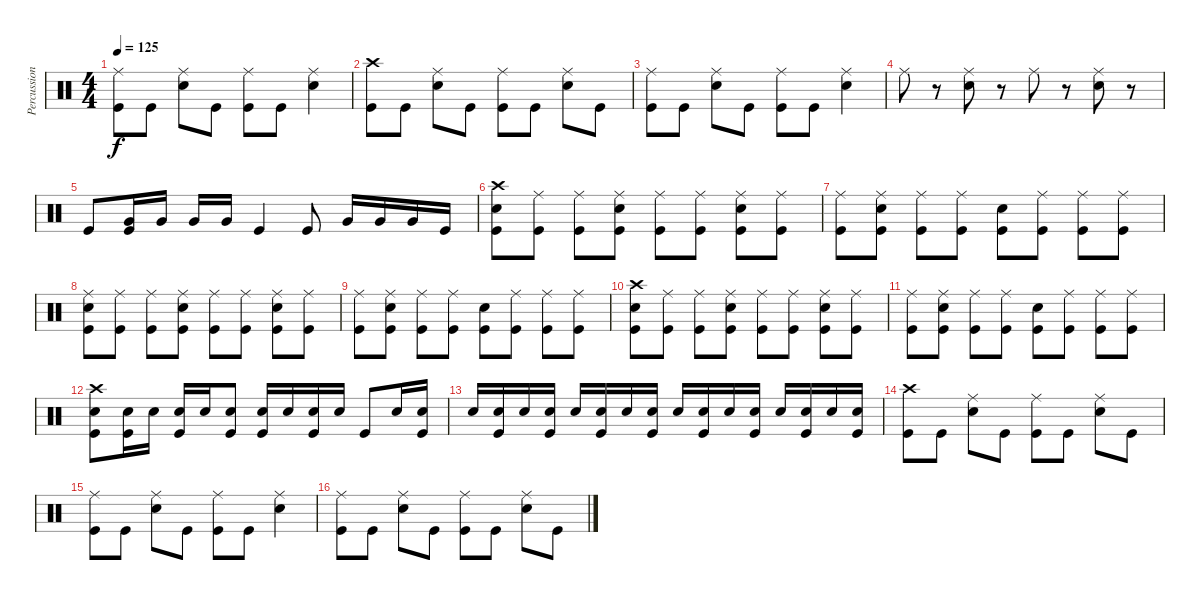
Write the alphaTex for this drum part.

\track ("Percussion" "Percussion") {instrument percussion}
\staff {score}
\articulation defaults
\ts (4 4)
\tempo 125
\clef neutral
\ks c
("Ride (middle)" "Kick (hit)").8{dy f} "Kick (hit)".8 ("Ride (middle)" "Snare (hit) 2").8 "Kick (hit)".8 ("Ride (middle)" "Kick (hit)").8 "Kick (hit)".8 ("Ride (middle)" "Snare (hit) 2").4 |
("Crash high (hit)" "Kick (hit)").8 "Kick (hit)".8 ("Ride (middle)" "Snare (hit) 2").8 "Kick (hit)".8 ("Ride (middle)" "Kick (hit)").8 "Kick (hit)".8 ("Ride (middle)" "Snare (hit) 2").8 "Kick (hit)".8 |
("Ride (middle)" "Kick (hit)").8 "Kick (hit)".8 ("Ride (middle)" "Snare (hit) 2").8 "Kick (hit)".8 ("Ride (middle)" "Kick (hit)").8 "Kick (hit)".8 ("Ride (middle)" "Snare (hit) 2").4 |
"Ride (middle)".8 r.8 ("Ride (middle)" "Snare (hit) 2").8 r.8 "Ride (middle)".8 r.8 ("Ride (middle)" "Snare (hit) 2").8 r.8 |
"Kick (hit)".8 ("Very Low Tom (hit)" "Kick (hit)").16 "Very Low Tom (hit)".16 "Very Low Tom (hit)".16 "Very Low Tom (hit)".16 "Kick (hit)".4 "Kick (hit)".8 "Very Low Tom (hit)".16 "Very Low Tom (hit)".16 "Very Low Tom (hit)".16 "Kick (hit)".16 |
("Crash high (hit)" "Snare (hit) 2" "Kick (hit)").8 ("Ride (middle)" "Kick (hit)").8 ("Ride (middle)" "Kick (hit)").8 ("Ride (middle)" "Snare (hit) 2" "Kick (hit)").8 ("Ride (middle)" "Kick (hit)").8 ("Ride (middle)" "Kick (hit)").8 ("Ride (middle)" "Snare (hit) 2" "Kick (hit)").8 ("Ride (middle)" "Kick (hit)").8 |
("Ride (middle)" "Kick (hit)").8 ("Ride (middle)" "Snare (hit) 2" "Kick (hit)").8 ("Ride (middle)" "Kick (hit)").8 ("Ride (middle)" "Kick (hit)").8 ("Snare (hit) 2" "Kick (hit)").8 ("Ride (middle)" "Kick (hit)").8 ("Ride (middle)" "Kick (hit)").8 ("Ride (middle)" "Kick (hit)").8 |
("Ride (middle)" "Snare (hit) 2" "Kick (hit)").8 ("Ride (middle)" "Kick (hit)").8 ("Ride (middle)" "Kick (hit)").8 ("Ride (middle)" "Snare (hit) 2" "Kick (hit)").8 ("Ride (middle)" "Kick (hit)").8 ("Ride (middle)" "Kick (hit)").8 ("Ride (middle)" "Snare (hit) 2" "Kick (hit)").8 ("Ride (middle)" "Kick (hit)").8 |
("Ride (middle)" "Kick (hit)").8 ("Ride (middle)" "Snare (hit) 2" "Kick (hit)").8 ("Ride (middle)" "Kick (hit)").8 ("Ride (middle)" "Kick (hit)").8 ("Snare (hit) 2" "Kick (hit)").8 ("Ride (middle)" "Kick (hit)").8 ("Ride (middle)" "Kick (hit)").8 ("Ride (middle)" "Kick (hit)").8 |
("Crash high (hit)" "Snare (hit) 2" "Kick (hit)").8 ("Ride (middle)" "Kick (hit)").8 ("Ride (middle)" "Kick (hit)").8 ("Ride (middle)" "Snare (hit) 2" "Kick (hit)").8 ("Ride (middle)" "Kick (hit)").8 ("Ride (middle)" "Kick (hit)").8 ("Ride (middle)" "Snare (hit) 2" "Kick (hit)").8 ("Ride (middle)" "Kick (hit)").8 |
("Ride (middle)" "Kick (hit)").8 ("Ride (middle)" "Snare (hit) 2" "Kick (hit)").8 ("Ride (middle)" "Kick (hit)").8 ("Ride (middle)" "Kick (hit)").8 ("Snare (hit) 2" "Kick (hit)").8 ("Ride (middle)" "Kick (hit)").8 ("Ride (middle)" "Kick (hit)").8 ("Ride (middle)" "Kick (hit)").8 |
("Crash high (hit)" "Snare (hit) 2" "Kick (hit)").8 ("Snare (hit) 2" "Kick (hit)").16 "Snare (hit) 2".16 ("Snare (hit) 2" "Kick (hit)").16 "Snare (hit) 2".16 ("Snare (hit) 2" "Kick (hit)").8 ("Snare (hit) 2" "Kick (hit)").16 "Snare (hit) 2".16 ("Snare (hit) 2" "Kick (hit)").16 "Snare (hit) 2".16 "Kick (hit)".8 "Snare (hit) 2".16 ("Snare (hit) 2" "Kick (hit)").16 |
"Snare (hit) 2".16 ("Snare (hit) 2" "Kick (hit)").16 "Snare (hit) 2".16 ("Snare (hit) 2" "Kick (hit)").16 "Snare (hit) 2".16 ("Snare (hit) 2" "Kick (hit)").16 "Snare (hit) 2".16 ("Snare (hit) 2" "Kick (hit)").16 "Snare (hit) 2".16 ("Snare (hit) 2" "Kick (hit)").16 "Snare (hit) 2".16 ("Snare (hit) 2" "Kick (hit)").16 "Snare (hit) 2".16 ("Snare (hit) 2" "Kick (hit)").16 "Snare (hit) 2".16 ("Snare (hit) 2" "Kick (hit)").16 |
("Crash high (hit)" "Kick (hit)").8 "Kick (hit)".8 ("Ride (middle)" "Snare (hit) 2").8 "Kick (hit)".8 ("Ride (middle)" "Kick (hit)").8 "Kick (hit)".8 ("Ride (middle)" "Snare (hit) 2").8 "Kick (hit)".8 |
("Ride (middle)" "Kick (hit)").8 "Kick (hit)".8 ("Ride (middle)" "Snare (hit) 2").8 "Kick (hit)".8 ("Ride (middle)" "Kick (hit)").8 "Kick (hit)".8 ("Ride (middle)" "Snare (hit) 2").4 |
("Ride (middle)" "Kick (hit)").8 "Kick (hit)".8 ("Ride (middle)" "Snare (hit) 2").8 "Kick (hit)".8 ("Ride (middle)" "Kick (hit)").8 "Kick (hit)".8 ("Ride (middle)" "Snare (hit) 2").8 "Kick (hit)".8
